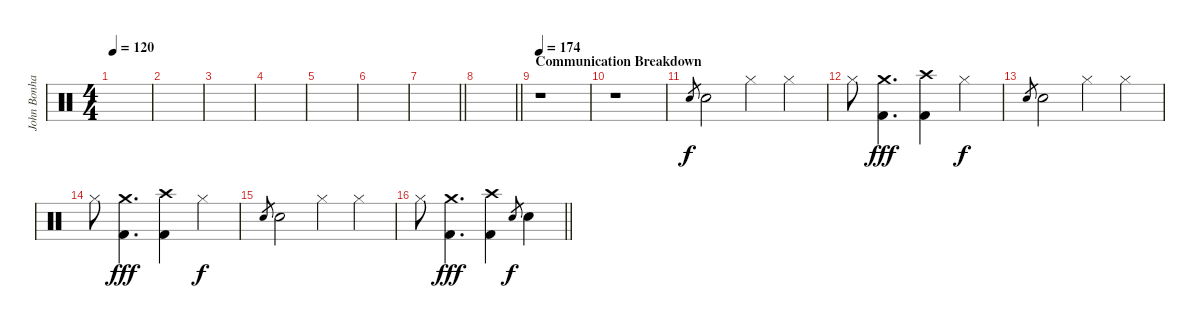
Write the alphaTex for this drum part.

\track ("John Bonham - Drums" "John Bonha") {instrument percussion}
\staff {score}
\articulation defaults
\ts (4 4)
\tempo 120
\clef neutral
\ks c
|
|
|
|
|
|
\barLineRight lightlight
|
\barLineRight lightlight
|
\section ("" "Communication Breakdown")
\tempo 174
r.1{volume 10 balance 8} |
r.1 |
"Snare (hit) 2".8{gr dy f} "Snare (hit) 2".2 "Hi-Hat (closed)".4 "Hi-Hat (closed)".4 |
"Hi-Hat (closed)".8 ("Crash medium (hit)" "Kick (hit) 2").4{d dy fff} ("Crash high (hit)" "Kick (hit) 2").4 "Hi-Hat (closed)".4{dy f} |
"Snare (hit) 2".8{gr} "Snare (hit) 2".2 "Hi-Hat (closed)".4 "Hi-Hat (closed)".4 |
"Hi-Hat (closed)".8 ("Crash medium (hit)" "Kick (hit) 2").4{d dy fff} ("Crash high (hit)" "Kick (hit) 2").4 "Hi-Hat (closed)".4{dy f} |
"Snare (hit) 2".8{gr} "Snare (hit) 2".2 "Hi-Hat (closed)".4 "Hi-Hat (closed)".4 |
\barLineRight lightlight "Hi-Hat (closed)".8
("Crash medium (hit)" "Kick (hit) 2").4{d dy fff} ("Crash high (hit)" "Kick (hit) 2").4 "Snare (hit) 2".8{gr dy f} "Snare (hit) 2".4
